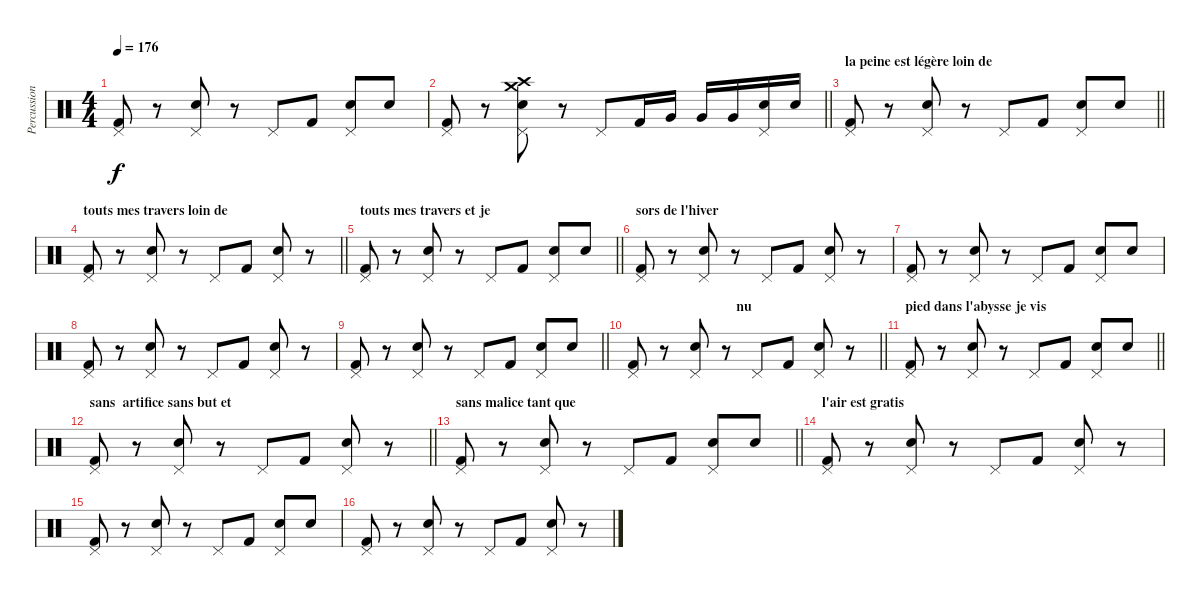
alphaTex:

\track ("Percussions" "Percussion") {instrument percussion}
\staff {score}
\articulation defaults
\ts (4 4)
\tempo 176
\clef neutral
\ks c
("Pedal Hi-Hat (hit)" "Kick (hit) 2").8{dy f} r.8 ("Pedal Hi-Hat (hit)" "Snare (hit) 2").8 r.8 "Pedal Hi-Hat (hit)".8 "Kick (hit) 2".8 ("Pedal Hi-Hat (hit)" "Snare (hit) 2").8 "Snare (hit) 2".8 |
\barLineRight lightlight
("Pedal Hi-Hat (hit)" "Kick (hit) 2").8 r.8 ("Pedal Hi-Hat (hit)" "Snare (hit) 2" "Crash medium (hit)" "Crash high (hit)").8 r.8 "Pedal Hi-Hat (hit)".8 "Kick (hit) 2".16 "Very Low Tom (hit)".16 "Very Low Tom (hit)".16 "Very Low Tom (hit)".16 ("Pedal Hi-Hat (hit)" "Snare (hit) 2").16 "Snare (hit) 2".16 |
\section ("" "la peine est légère loin de ")
\barLineRight lightlight
("Pedal Hi-Hat (hit)" "Kick (hit) 2").8 r.8 ("Pedal Hi-Hat (hit)" "Snare (hit) 2").8 r.8 "Pedal Hi-Hat (hit)".8 "Kick (hit) 2".8 ("Pedal Hi-Hat (hit)" "Snare (hit) 2").8 "Snare (hit) 2".8 |
\section ("" "touts mes travers loin de")
\barLineRight lightlight
("Pedal Hi-Hat (hit)" "Kick (hit) 2").8 r.8 ("Pedal Hi-Hat (hit)" "Snare (hit) 2").8 r.8 "Pedal Hi-Hat (hit)".8 "Kick (hit) 2".8 ("Pedal Hi-Hat (hit)" "Snare (hit) 2").8 r.8 |
\section ("" "touts mes travers et je")
\barLineRight lightlight
("Pedal Hi-Hat (hit)" "Kick (hit) 2").8 r.8 ("Pedal Hi-Hat (hit)" "Snare (hit) 2").8 r.8 "Pedal Hi-Hat (hit)".8 "Kick (hit) 2".8 ("Pedal Hi-Hat (hit)" "Snare (hit) 2").8 "Snare (hit) 2".8 |
\section ("" "sors de l'hiver")
("Pedal Hi-Hat (hit)" "Kick (hit) 2").8 r.8 ("Pedal Hi-Hat (hit)" "Snare (hit) 2").8 r.8 "Pedal Hi-Hat (hit)".8 "Kick (hit) 2".8 ("Pedal Hi-Hat (hit)" "Snare (hit) 2").8 r.8 |
("Pedal Hi-Hat (hit)" "Kick (hit) 2").8 r.8 ("Pedal Hi-Hat (hit)" "Snare (hit) 2").8 r.8 "Pedal Hi-Hat (hit)".8 "Kick (hit) 2".8 ("Pedal Hi-Hat (hit)" "Snare (hit) 2").8 "Snare (hit) 2".8 |
("Pedal Hi-Hat (hit)" "Kick (hit) 2").8 r.8 ("Pedal Hi-Hat (hit)" "Snare (hit) 2").8 r.8 "Pedal Hi-Hat (hit)".8 "Kick (hit) 2".8 ("Pedal Hi-Hat (hit)" "Snare (hit) 2").8 r.8 |
\barLineRight lightlight
("Pedal Hi-Hat (hit)" "Kick (hit) 2").8 r.8 ("Pedal Hi-Hat (hit)" "Snare (hit) 2").8 r.8 "Pedal Hi-Hat (hit)".8 "Kick (hit) 2".8 ("Pedal Hi-Hat (hit)" "Snare (hit) 2").8 "Snare (hit) 2".8 |
\section ("" "                               nu")
\barLineRight lightlight
("Pedal Hi-Hat (hit)" "Kick (hit) 2").8 r.8 ("Pedal Hi-Hat (hit)" "Snare (hit) 2").8 r.8 "Pedal Hi-Hat (hit)".8 "Kick (hit) 2".8 ("Pedal Hi-Hat (hit)" "Snare (hit) 2").8 r.8 |
\section ("" "pied dans l'abysse je vis")
\barLineRight lightlight
("Pedal Hi-Hat (hit)" "Kick (hit) 2").8 r.8 ("Pedal Hi-Hat (hit)" "Snare (hit) 2").8 r.8 "Pedal Hi-Hat (hit)".8 "Kick (hit) 2".8 ("Pedal Hi-Hat (hit)" "Snare (hit) 2").8 "Snare (hit) 2".8 |
\section ("" "sans  artifice sans but et ")
\barLineRight lightlight
("Pedal Hi-Hat (hit)" "Kick (hit) 2").8 r.8 ("Pedal Hi-Hat (hit)" "Snare (hit) 2").8 r.8 "Pedal Hi-Hat (hit)".8 "Kick (hit) 2".8 ("Pedal Hi-Hat (hit)" "Snare (hit) 2").8 r.8 |
\section ("" "sans malice tant que ")
\barLineRight lightlight
("Pedal Hi-Hat (hit)" "Kick (hit) 2").8 r.8 ("Pedal Hi-Hat (hit)" "Snare (hit) 2").8 r.8 "Pedal Hi-Hat (hit)".8 "Kick (hit) 2".8 ("Pedal Hi-Hat (hit)" "Snare (hit) 2").8 "Snare (hit) 2".8 |
\section ("" "l'air est gratis")
("Pedal Hi-Hat (hit)" "Kick (hit) 2").8 r.8 ("Pedal Hi-Hat (hit)" "Snare (hit) 2").8 r.8 "Pedal Hi-Hat (hit)".8 "Kick (hit) 2".8 ("Pedal Hi-Hat (hit)" "Snare (hit) 2").8 r.8 |
("Pedal Hi-Hat (hit)" "Kick (hit) 2").8 r.8 ("Pedal Hi-Hat (hit)" "Snare (hit) 2").8 r.8 "Pedal Hi-Hat (hit)".8 "Kick (hit) 2".8 ("Pedal Hi-Hat (hit)" "Snare (hit) 2").8 "Snare (hit) 2".8 |
("Pedal Hi-Hat (hit)" "Kick (hit) 2").8 r.8 ("Pedal Hi-Hat (hit)" "Snare (hit) 2").8 r.8 "Pedal Hi-Hat (hit)".8 "Kick (hit) 2".8 ("Pedal Hi-Hat (hit)" "Snare (hit) 2").8 r.8
